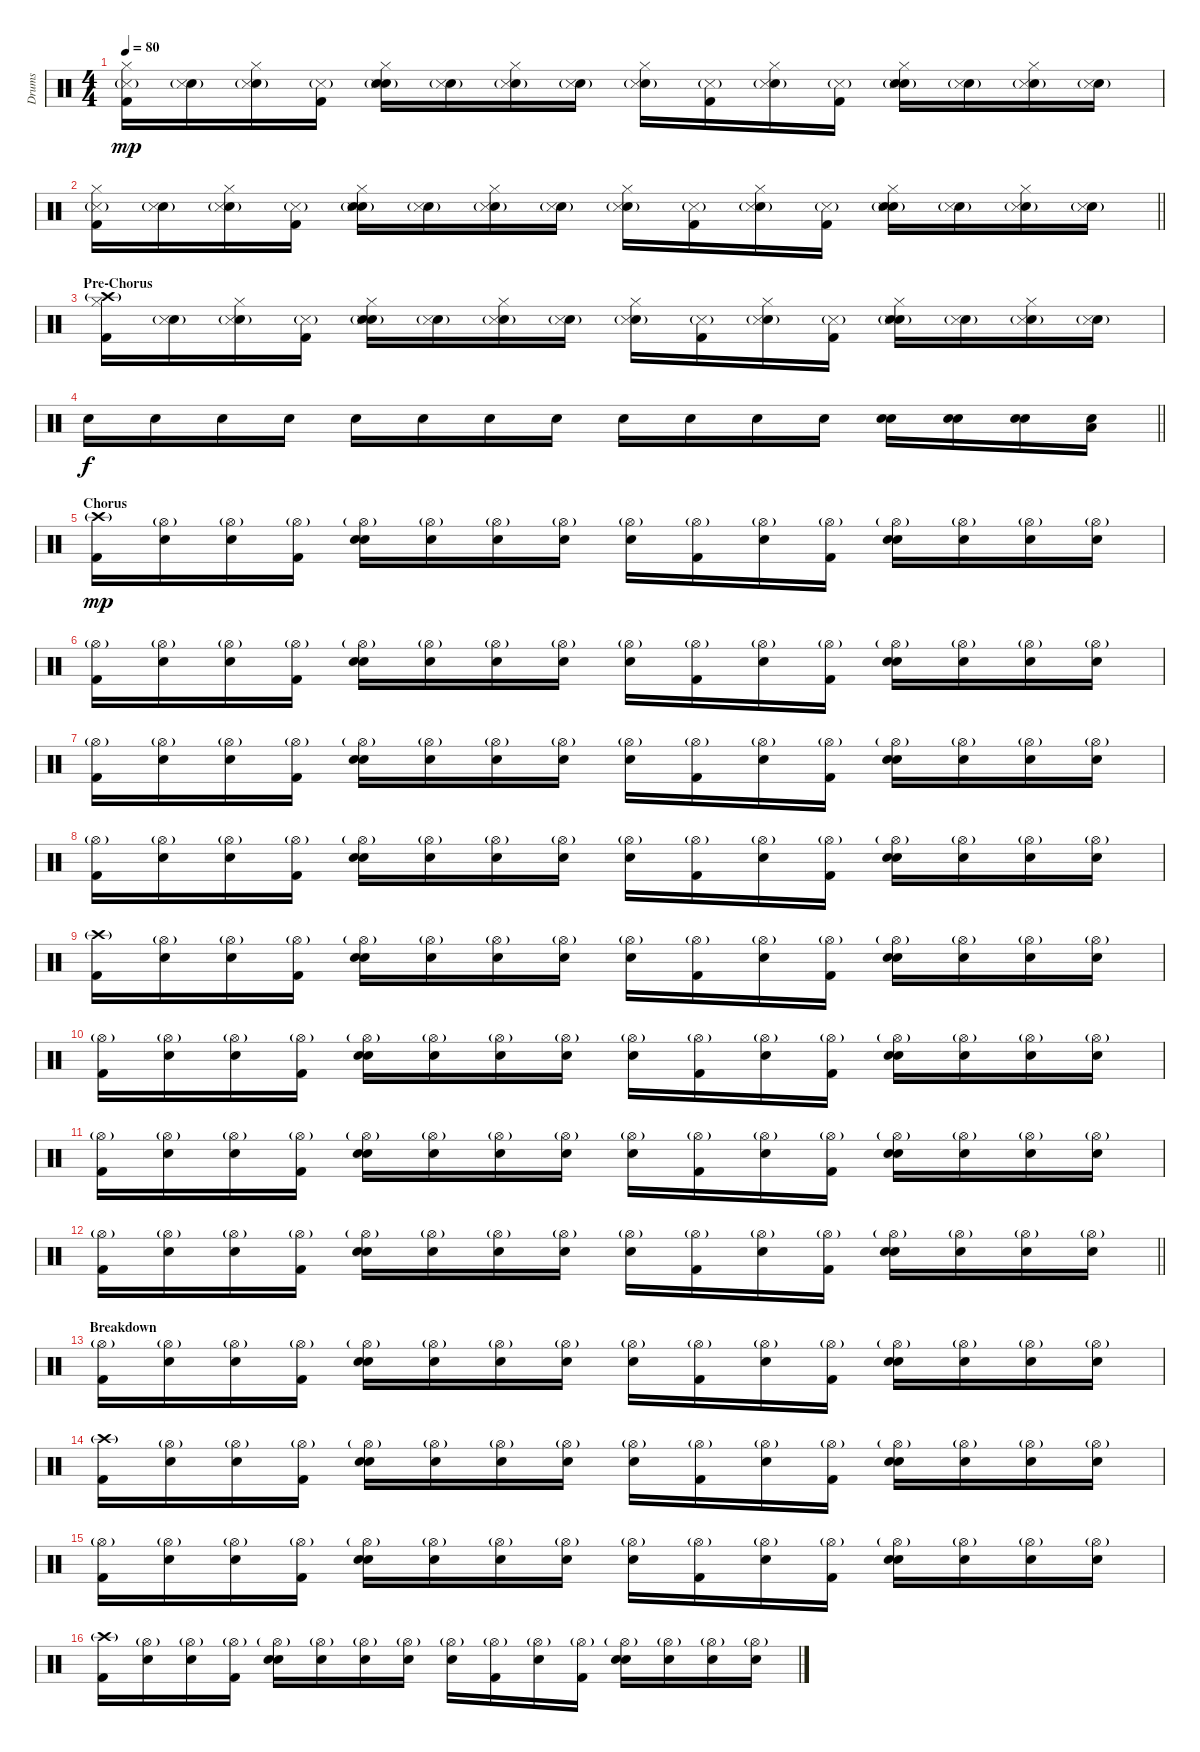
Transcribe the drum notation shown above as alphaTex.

\track ("Drums" "Drums") {instrument percussion}
\staff {score}
\articulation defaults
\ts (4 4)
\tempo 80
\clef neutral
\ks c
("Kick (hit) 2" "Hi-Hat (closed)" "Snare (side stick) 3"{g}).16{dy mp} ("Snare (hit)" "Snare (side stick) 3"{g}).16 ("Snare (hit)" "Hi-Hat (closed)" "Snare (side stick) 3"{g}).16 ("Kick (hit) 2" "Snare (side stick) 3"{g}).16 ("Snare (hit)" "Electric Snare (hit)" "Hi-Hat (closed)" "Snare (side stick) 3"{g}).16 ("Snare (hit)" "Snare (side stick) 3"{g}).16 ("Snare (hit)" "Hi-Hat (closed)" "Snare (side stick) 3"{g}).16 ("Snare (hit)" "Snare (side stick) 3"{g}).16 ("Snare (hit)" "Hi-Hat (closed)" "Snare (side stick) 3"{g}).16 ("Kick (hit) 2" "Snare (side stick) 3"{g}).16 ("Snare (hit)" "Hi-Hat (closed)" "Snare (side stick) 3"{g}).16 ("Kick (hit) 2" "Snare (side stick) 3"{g}).16 ("Snare (hit)" "Electric Snare (hit)" "Hi-Hat (closed)" "Snare (side stick) 3"{g}).16 ("Snare (hit)" "Snare (side stick) 3"{g}).16 ("Snare (hit)" "Hi-Hat (closed)" "Snare (side stick) 3"{g}).16 ("Snare (hit)" "Snare (side stick) 3"{g}).16 |
\barLineRight lightlight
("Kick (hit) 2" "Hi-Hat (closed)" "Snare (side stick) 3"{g}).16 ("Snare (hit)" "Snare (side stick) 3"{g}).16 ("Snare (hit)" "Hi-Hat (closed)" "Snare (side stick) 3"{g}).16 ("Kick (hit) 2" "Snare (side stick) 3"{g}).16 ("Snare (hit)" "Electric Snare (hit)" "Hi-Hat (closed)" "Snare (side stick) 3"{g}).16 ("Snare (hit)" "Snare (side stick) 3"{g}).16 ("Snare (hit)" "Hi-Hat (closed)" "Snare (side stick) 3"{g}).16 ("Snare (hit)" "Snare (side stick) 3"{g}).16 ("Snare (hit)" "Hi-Hat (closed)" "Snare (side stick) 3"{g}).16 ("Kick (hit) 2" "Snare (side stick) 3"{g}).16 ("Snare (hit)" "Hi-Hat (closed)" "Snare (side stick) 3"{g}).16 ("Kick (hit) 2" "Snare (side stick) 3"{g}).16 ("Snare (hit)" "Electric Snare (hit)" "Hi-Hat (closed)" "Snare (side stick) 3"{g}).16 ("Snare (hit)" "Snare (side stick) 3"{g}).16 ("Snare (hit)" "Hi-Hat (closed)" "Snare (side stick) 3"{g}).16 ("Snare (hit)" "Snare (side stick) 3"{g}).16 |
\section ("" "Pre-Chorus")
("Kick (hit) 2" "Hi-Hat (closed)" "Crash high (hit)"{g}).16 ("Snare (hit)" "Snare (side stick) 3"{g}).16 ("Snare (hit)" "Hi-Hat (closed)" "Snare (side stick) 3"{g}).16 ("Kick (hit) 2" "Snare (side stick) 3"{g}).16 ("Snare (hit)" "Electric Snare (hit)" "Hi-Hat (closed)" "Snare (side stick) 3"{g}).16 ("Snare (hit)" "Snare (side stick) 3"{g}).16 ("Snare (hit)" "Hi-Hat (closed)" "Snare (side stick) 3"{g}).16 ("Snare (hit)" "Snare (side stick) 3"{g}).16 ("Snare (hit)" "Hi-Hat (closed)" "Snare (side stick) 3"{g}).16 ("Kick (hit) 2" "Snare (side stick) 3"{g}).16 ("Snare (hit)" "Hi-Hat (closed)" "Snare (side stick) 3"{g}).16 ("Kick (hit) 2" "Snare (side stick) 3"{g}).16 ("Snare (hit)" "Electric Snare (hit)" "Hi-Hat (closed)" "Snare (side stick) 3"{g}).16 ("Snare (hit)" "Snare (side stick) 3"{g}).16 ("Snare (hit)" "Hi-Hat (closed)" "Snare (side stick) 3"{g}).16 ("Snare (hit)" "Snare (side stick) 3"{g}).16 |
\barLineRight lightlight "Snare (hit)".16{dy f} "Snare (hit)".16 "Snare (hit)".16 "Snare (hit)".16 "Snare (hit)".16 "Snare (hit)".16 "Snare (hit)".16 "Snare (hit)".16 "Snare (hit)".16 "Snare (hit)".16 "Snare (hit)".16 "Snare (hit)".16
("Snare (hit)" "Electric Snare (hit)").16 ("Snare (hit)" "Electric Snare (hit)").16 ("Snare (hit)" "Electric Snare (hit)").16 ("Snare (hit)" "Low Tom (hit)").16 |
\section ("" "Chorus")
("Kick (hit) 2" "Crash high (hit)"{g}).16{dy mp} ("Snare (hit)" "Hi-Hat (open)"{g}).16 ("Snare (hit)" "Hi-Hat (open)"{g}).16 ("Kick (hit) 2" "Hi-Hat (open)"{g}).16 ("Snare (hit)" "Electric Snare (hit)" "Hi-Hat (open)"{g}).16 ("Snare (hit)" "Hi-Hat (open)"{g}).16 ("Snare (hit)" "Hi-Hat (open)"{g}).16 ("Snare (hit)" "Hi-Hat (open)"{g}).16 ("Snare (hit)" "Hi-Hat (open)"{g}).16 ("Kick (hit) 2" "Hi-Hat (open)"{g}).16 ("Snare (hit)" "Hi-Hat (open)"{g}).16 ("Kick (hit) 2" "Hi-Hat (open)"{g}).16 ("Snare (hit)" "Electric Snare (hit)" "Hi-Hat (open)"{g}).16 ("Snare (hit)" "Hi-Hat (open)"{g}).16 ("Snare (hit)" "Hi-Hat (open)"{g}).16 ("Snare (hit)" "Hi-Hat (open)"{g}).16 |
("Kick (hit) 2" "Hi-Hat (open)"{g}).16 ("Snare (hit)" "Hi-Hat (open)"{g}).16 ("Snare (hit)" "Hi-Hat (open)"{g}).16 ("Kick (hit) 2" "Hi-Hat (open)"{g}).16 ("Snare (hit)" "Electric Snare (hit)" "Hi-Hat (open)"{g}).16 ("Snare (hit)" "Hi-Hat (open)"{g}).16 ("Snare (hit)" "Hi-Hat (open)"{g}).16 ("Snare (hit)" "Hi-Hat (open)"{g}).16 ("Snare (hit)" "Hi-Hat (open)"{g}).16 ("Kick (hit) 2" "Hi-Hat (open)"{g}).16 ("Snare (hit)" "Hi-Hat (open)"{g}).16 ("Kick (hit) 2" "Hi-Hat (open)"{g}).16 ("Snare (hit)" "Electric Snare (hit)" "Hi-Hat (open)"{g}).16 ("Snare (hit)" "Hi-Hat (open)"{g}).16 ("Snare (hit)" "Hi-Hat (open)"{g}).16 ("Snare (hit)" "Hi-Hat (open)"{g}).16 |
("Kick (hit) 2" "Hi-Hat (open)"{g}).16 ("Snare (hit)" "Hi-Hat (open)"{g}).16 ("Snare (hit)" "Hi-Hat (open)"{g}).16 ("Kick (hit) 2" "Hi-Hat (open)"{g}).16 ("Snare (hit)" "Electric Snare (hit)" "Hi-Hat (open)"{g}).16 ("Snare (hit)" "Hi-Hat (open)"{g}).16 ("Snare (hit)" "Hi-Hat (open)"{g}).16 ("Snare (hit)" "Hi-Hat (open)"{g}).16 ("Snare (hit)" "Hi-Hat (open)"{g}).16 ("Kick (hit) 2" "Hi-Hat (open)"{g}).16 ("Snare (hit)" "Hi-Hat (open)"{g}).16 ("Kick (hit) 2" "Hi-Hat (open)"{g}).16 ("Snare (hit)" "Electric Snare (hit)" "Hi-Hat (open)"{g}).16 ("Snare (hit)" "Hi-Hat (open)"{g}).16 ("Snare (hit)" "Hi-Hat (open)"{g}).16 ("Snare (hit)" "Hi-Hat (open)"{g}).16 |
("Kick (hit) 2" "Hi-Hat (open)"{g}).16 ("Snare (hit)" "Hi-Hat (open)"{g}).16 ("Snare (hit)" "Hi-Hat (open)"{g}).16 ("Kick (hit) 2" "Hi-Hat (open)"{g}).16 ("Snare (hit)" "Electric Snare (hit)" "Hi-Hat (open)"{g}).16 ("Snare (hit)" "Hi-Hat (open)"{g}).16 ("Snare (hit)" "Hi-Hat (open)"{g}).16 ("Snare (hit)" "Hi-Hat (open)"{g}).16 ("Snare (hit)" "Hi-Hat (open)"{g}).16 ("Kick (hit) 2" "Hi-Hat (open)"{g}).16 ("Snare (hit)" "Hi-Hat (open)"{g}).16 ("Kick (hit) 2" "Hi-Hat (open)"{g}).16 ("Snare (hit)" "Electric Snare (hit)" "Hi-Hat (open)"{g}).16 ("Snare (hit)" "Hi-Hat (open)"{g}).16 ("Snare (hit)" "Hi-Hat (open)"{g}).16 ("Snare (hit)" "Hi-Hat (open)"{g}).16 |
("Kick (hit) 2" "Crash high (hit)"{g}).16 ("Snare (hit)" "Hi-Hat (open)"{g}).16 ("Snare (hit)" "Hi-Hat (open)"{g}).16 ("Kick (hit) 2" "Hi-Hat (open)"{g}).16 ("Snare (hit)" "Electric Snare (hit)" "Hi-Hat (open)"{g}).16 ("Snare (hit)" "Hi-Hat (open)"{g}).16 ("Snare (hit)" "Hi-Hat (open)"{g}).16 ("Snare (hit)" "Hi-Hat (open)"{g}).16 ("Snare (hit)" "Hi-Hat (open)"{g}).16 ("Kick (hit) 2" "Hi-Hat (open)"{g}).16 ("Snare (hit)" "Hi-Hat (open)"{g}).16 ("Kick (hit) 2" "Hi-Hat (open)"{g}).16 ("Snare (hit)" "Electric Snare (hit)" "Hi-Hat (open)"{g}).16 ("Snare (hit)" "Hi-Hat (open)"{g}).16 ("Snare (hit)" "Hi-Hat (open)"{g}).16 ("Snare (hit)" "Hi-Hat (open)"{g}).16 |
("Kick (hit) 2" "Hi-Hat (open)"{g}).16 ("Snare (hit)" "Hi-Hat (open)"{g}).16 ("Snare (hit)" "Hi-Hat (open)"{g}).16 ("Kick (hit) 2" "Hi-Hat (open)"{g}).16 ("Snare (hit)" "Electric Snare (hit)" "Hi-Hat (open)"{g}).16 ("Snare (hit)" "Hi-Hat (open)"{g}).16 ("Snare (hit)" "Hi-Hat (open)"{g}).16 ("Snare (hit)" "Hi-Hat (open)"{g}).16 ("Snare (hit)" "Hi-Hat (open)"{g}).16 ("Kick (hit) 2" "Hi-Hat (open)"{g}).16 ("Snare (hit)" "Hi-Hat (open)"{g}).16 ("Kick (hit) 2" "Hi-Hat (open)"{g}).16 ("Snare (hit)" "Electric Snare (hit)" "Hi-Hat (open)"{g}).16 ("Snare (hit)" "Hi-Hat (open)"{g}).16 ("Snare (hit)" "Hi-Hat (open)"{g}).16 ("Snare (hit)" "Hi-Hat (open)"{g}).16 |
("Kick (hit) 2" "Hi-Hat (open)"{g}).16 ("Snare (hit)" "Hi-Hat (open)"{g}).16 ("Snare (hit)" "Hi-Hat (open)"{g}).16 ("Kick (hit) 2" "Hi-Hat (open)"{g}).16 ("Snare (hit)" "Electric Snare (hit)" "Hi-Hat (open)"{g}).16 ("Snare (hit)" "Hi-Hat (open)"{g}).16 ("Snare (hit)" "Hi-Hat (open)"{g}).16 ("Snare (hit)" "Hi-Hat (open)"{g}).16 ("Snare (hit)" "Hi-Hat (open)"{g}).16 ("Kick (hit) 2" "Hi-Hat (open)"{g}).16 ("Snare (hit)" "Hi-Hat (open)"{g}).16 ("Kick (hit) 2" "Hi-Hat (open)"{g}).16 ("Snare (hit)" "Electric Snare (hit)" "Hi-Hat (open)"{g}).16 ("Snare (hit)" "Hi-Hat (open)"{g}).16 ("Snare (hit)" "Hi-Hat (open)"{g}).16 ("Snare (hit)" "Hi-Hat (open)"{g}).16 |
\barLineRight lightlight
("Kick (hit) 2" "Hi-Hat (open)"{g}).16 ("Snare (hit)" "Hi-Hat (open)"{g}).16 ("Snare (hit)" "Hi-Hat (open)"{g}).16 ("Kick (hit) 2" "Hi-Hat (open)"{g}).16 ("Snare (hit)" "Electric Snare (hit)" "Hi-Hat (open)"{g}).16 ("Snare (hit)" "Hi-Hat (open)"{g}).16 ("Snare (hit)" "Hi-Hat (open)"{g}).16 ("Snare (hit)" "Hi-Hat (open)"{g}).16 ("Snare (hit)" "Hi-Hat (open)"{g}).16 ("Kick (hit) 2" "Hi-Hat (open)"{g}).16 ("Snare (hit)" "Hi-Hat (open)"{g}).16 ("Kick (hit) 2" "Hi-Hat (open)"{g}).16 ("Snare (hit)" "Electric Snare (hit)" "Hi-Hat (open)"{g}).16 ("Snare (hit)" "Hi-Hat (open)"{g}).16 ("Snare (hit)" "Hi-Hat (open)"{g}).16 ("Snare (hit)" "Hi-Hat (open)"{g}).16 |
\section ("" "Breakdown")
("Kick (hit) 2" "Hi-Hat (open)"{g}).16 ("Snare (hit)" "Hi-Hat (open)"{g}).16 ("Snare (hit)" "Hi-Hat (open)"{g}).16 ("Kick (hit) 2" "Hi-Hat (open)"{g}).16 ("Snare (hit)" "Electric Snare (hit)" "Hi-Hat (open)"{g}).16 ("Snare (hit)" "Hi-Hat (open)"{g}).16 ("Snare (hit)" "Hi-Hat (open)"{g}).16 ("Snare (hit)" "Hi-Hat (open)"{g}).16 ("Snare (hit)" "Hi-Hat (open)"{g}).16 ("Kick (hit) 2" "Hi-Hat (open)"{g}).16 ("Snare (hit)" "Hi-Hat (open)"{g}).16 ("Kick (hit) 2" "Hi-Hat (open)"{g}).16 ("Snare (hit)" "Electric Snare (hit)" "Hi-Hat (open)"{g}).16 ("Snare (hit)" "Hi-Hat (open)"{g}).16 ("Snare (hit)" "Hi-Hat (open)"{g}).16 ("Snare (hit)" "Hi-Hat (open)"{g}).16 |
("Kick (hit) 2" "Crash high (hit)"{g}).16 ("Snare (hit)" "Hi-Hat (open)"{g}).16 ("Snare (hit)" "Hi-Hat (open)"{g}).16 ("Kick (hit) 2" "Hi-Hat (open)"{g}).16 ("Snare (hit)" "Electric Snare (hit)" "Hi-Hat (open)"{g}).16 ("Snare (hit)" "Hi-Hat (open)"{g}).16 ("Snare (hit)" "Hi-Hat (open)"{g}).16 ("Snare (hit)" "Hi-Hat (open)"{g}).16 ("Snare (hit)" "Hi-Hat (open)"{g}).16 ("Kick (hit) 2" "Hi-Hat (open)"{g}).16 ("Snare (hit)" "Hi-Hat (open)"{g}).16 ("Kick (hit) 2" "Hi-Hat (open)"{g}).16 ("Snare (hit)" "Electric Snare (hit)" "Hi-Hat (open)"{g}).16 ("Snare (hit)" "Hi-Hat (open)"{g}).16 ("Snare (hit)" "Hi-Hat (open)"{g}).16 ("Snare (hit)" "Hi-Hat (open)"{g}).16 |
("Kick (hit) 2" "Hi-Hat (open)"{g}).16 ("Snare (hit)" "Hi-Hat (open)"{g}).16 ("Snare (hit)" "Hi-Hat (open)"{g}).16 ("Kick (hit) 2" "Hi-Hat (open)"{g}).16 ("Snare (hit)" "Electric Snare (hit)" "Hi-Hat (open)"{g}).16 ("Snare (hit)" "Hi-Hat (open)"{g}).16 ("Snare (hit)" "Hi-Hat (open)"{g}).16 ("Snare (hit)" "Hi-Hat (open)"{g}).16 ("Snare (hit)" "Hi-Hat (open)"{g}).16 ("Kick (hit) 2" "Hi-Hat (open)"{g}).16 ("Snare (hit)" "Hi-Hat (open)"{g}).16 ("Kick (hit) 2" "Hi-Hat (open)"{g}).16 ("Snare (hit)" "Electric Snare (hit)" "Hi-Hat (open)"{g}).16 ("Snare (hit)" "Hi-Hat (open)"{g}).16 ("Snare (hit)" "Hi-Hat (open)"{g}).16 ("Snare (hit)" "Hi-Hat (open)"{g}).16 |
("Kick (hit) 2" "Crash high (hit)"{g}).16 ("Snare (hit)" "Hi-Hat (open)"{g}).16 ("Snare (hit)" "Hi-Hat (open)"{g}).16 ("Kick (hit) 2" "Hi-Hat (open)"{g}).16 ("Snare (hit)" "Electric Snare (hit)" "Hi-Hat (open)"{g}).16 ("Snare (hit)" "Hi-Hat (open)"{g}).16 ("Snare (hit)" "Hi-Hat (open)"{g}).16 ("Snare (hit)" "Hi-Hat (open)"{g}).16 ("Snare (hit)" "Hi-Hat (open)"{g}).16 ("Kick (hit) 2" "Hi-Hat (open)"{g}).16 ("Snare (hit)" "Hi-Hat (open)"{g}).16 ("Kick (hit) 2" "Hi-Hat (open)"{g}).16 ("Snare (hit)" "Electric Snare (hit)" "Hi-Hat (open)"{g}).16 ("Snare (hit)" "Hi-Hat (open)"{g}).16 ("Snare (hit)" "Hi-Hat (open)"{g}).16 ("Snare (hit)" "Hi-Hat (open)"{g}).16
